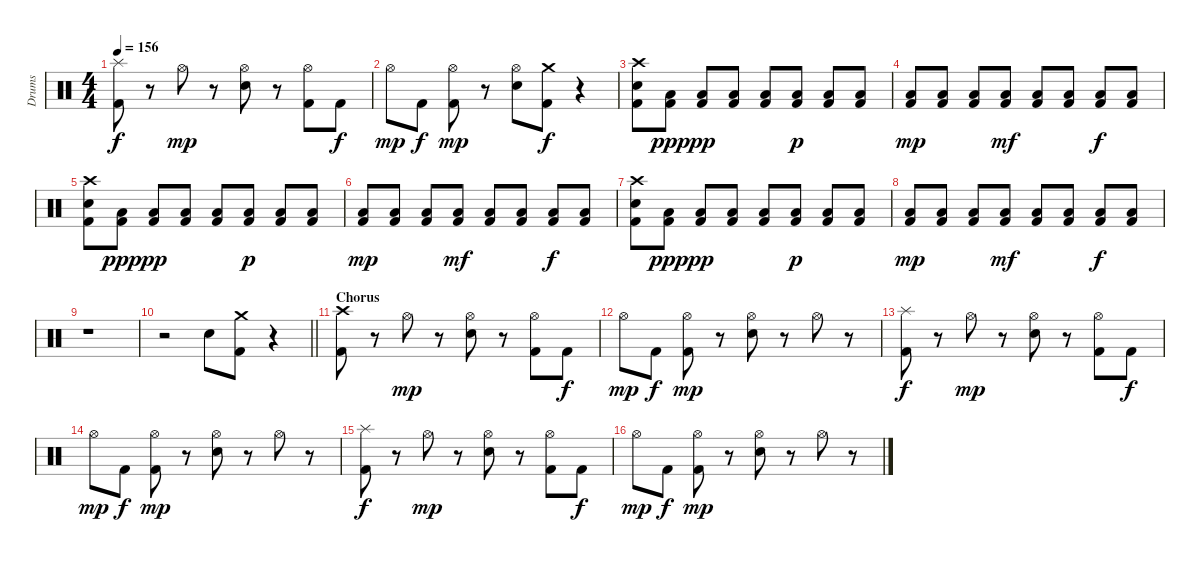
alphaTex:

\track ("Drums" "Drums") {instrument percussion}
\staff {score}
\articulation defaults
\ts (4 4)
\tempo 156
\clef neutral
\ks c
("Kick (hit) 2" "Splash (hit)").8{dy f} r.8 "Hi-Hat (open)".8{dy mp} r.8 ("Snare (hit) 2" "Hi-Hat (open)").8 r.8 ("Kick (hit) 2" "Hi-Hat (open)").8 "Kick (hit) 2".8{dy f} |
"Hi-Hat (open)".8{dy mp} "Kick (hit) 2".8{dy f} ("Kick (hit) 2" "Hi-Hat (open)").8{dy mp} r.8 ("Snare (hit) 2" "Hi-Hat (open)").8 ("Kick (hit) 2" "Crash medium (hit)").8{dy f} r.4 |
("Kick (hit) 2" "Snare (hit) 2" "Crash high (hit)").8 ("Kick (hit) 2" "Low Floor Tom (hit)").8{dy ppp} ("Kick (hit) 2" "Low Floor Tom (hit)").8{dy pp} ("Kick (hit) 2" "Low Floor Tom (hit)").8 ("Kick (hit) 2" "Low Floor Tom (hit)").8 ("Kick (hit) 2" "Low Floor Tom (hit)").8{dy p} ("Kick (hit) 2" "Low Floor Tom (hit)").8 ("Kick (hit) 2" "Low Floor Tom (hit)").8 |
("Kick (hit) 2" "Low Floor Tom (hit)").8{dy mp} ("Kick (hit) 2" "Low Floor Tom (hit)").8 ("Kick (hit) 2" "Low Floor Tom (hit)").8 ("Kick (hit) 2" "Low Floor Tom (hit)").8{dy mf} ("Kick (hit) 2" "Low Floor Tom (hit)").8 ("Kick (hit) 2" "Low Floor Tom (hit)").8 ("Kick (hit) 2" "Low Floor Tom (hit)").8{dy f} ("Kick (hit) 2" "Low Floor Tom (hit)").8 |
("Kick (hit) 2" "Snare (hit) 2" "Crash high (hit)").8 ("Kick (hit) 2" "Low Floor Tom (hit)").8{dy ppp} ("Kick (hit) 2" "Low Floor Tom (hit)").8{dy pp} ("Kick (hit) 2" "Low Floor Tom (hit)").8 ("Kick (hit) 2" "Low Floor Tom (hit)").8 ("Kick (hit) 2" "Low Floor Tom (hit)").8{dy p} ("Kick (hit) 2" "Low Floor Tom (hit)").8 ("Kick (hit) 2" "Low Floor Tom (hit)").8 |
("Kick (hit) 2" "Low Floor Tom (hit)").8{dy mp} ("Kick (hit) 2" "Low Floor Tom (hit)").8 ("Kick (hit) 2" "Low Floor Tom (hit)").8 ("Kick (hit) 2" "Low Floor Tom (hit)").8{dy mf} ("Kick (hit) 2" "Low Floor Tom (hit)").8 ("Kick (hit) 2" "Low Floor Tom (hit)").8 ("Kick (hit) 2" "Low Floor Tom (hit)").8{dy f} ("Kick (hit) 2" "Low Floor Tom (hit)").8 |
("Kick (hit) 2" "Snare (hit) 2" "Crash high (hit)").8 ("Kick (hit) 2" "Low Floor Tom (hit)").8{dy ppp} ("Kick (hit) 2" "Low Floor Tom (hit)").8{dy pp} ("Kick (hit) 2" "Low Floor Tom (hit)").8 ("Kick (hit) 2" "Low Floor Tom (hit)").8 ("Kick (hit) 2" "Low Floor Tom (hit)").8{dy p} ("Kick (hit) 2" "Low Floor Tom (hit)").8 ("Kick (hit) 2" "Low Floor Tom (hit)").8 |
("Kick (hit) 2" "Low Floor Tom (hit)").8{dy mp} ("Kick (hit) 2" "Low Floor Tom (hit)").8 ("Kick (hit) 2" "Low Floor Tom (hit)").8 ("Kick (hit) 2" "Low Floor Tom (hit)").8{dy mf} ("Kick (hit) 2" "Low Floor Tom (hit)").8 ("Kick (hit) 2" "Low Floor Tom (hit)").8 ("Kick (hit) 2" "Low Floor Tom (hit)").8{dy f} ("Kick (hit) 2" "Low Floor Tom (hit)").8 |
r.1 |
\barLineRight lightlight
r.2 "Snare (hit) 2".8 ("Kick (hit) 2" "Crash medium (hit)").8 r.4 |
\section ("" "Chorus")
("Kick (hit) 2" "Crash high (hit)").8 r.8 "Hi-Hat (open)".8{dy mp} r.8 ("Snare (hit) 2" "Hi-Hat (open)").8 r.8 ("Kick (hit) 2" "Hi-Hat (open)").8 "Kick (hit) 2".8{dy f} |
"Hi-Hat (open)".8{dy mp} "Kick (hit) 2".8{dy f} ("Kick (hit) 2" "Hi-Hat (open)").8{dy mp} r.8 ("Snare (hit) 2" "Hi-Hat (open)").8 r.8 "Hi-Hat (open)".8 r.8 |
("Kick (hit) 2" "Splash (hit)").8{dy f} r.8 "Hi-Hat (open)".8{dy mp} r.8 ("Snare (hit) 2" "Hi-Hat (open)").8 r.8 ("Kick (hit) 2" "Hi-Hat (open)").8 "Kick (hit) 2".8{dy f} |
"Hi-Hat (open)".8{dy mp} "Kick (hit) 2".8{dy f} ("Kick (hit) 2" "Hi-Hat (open)").8{dy mp} r.8 ("Snare (hit) 2" "Hi-Hat (open)").8 r.8 "Hi-Hat (open)".8 r.8 |
("Kick (hit) 2" "Splash (hit)").8{dy f} r.8 "Hi-Hat (open)".8{dy mp} r.8 ("Snare (hit) 2" "Hi-Hat (open)").8 r.8 ("Kick (hit) 2" "Hi-Hat (open)").8 "Kick (hit) 2".8{dy f} |
"Hi-Hat (open)".8{dy mp} "Kick (hit) 2".8{dy f} ("Kick (hit) 2" "Hi-Hat (open)").8{dy mp} r.8 ("Snare (hit) 2" "Hi-Hat (open)").8 r.8 "Hi-Hat (open)".8 r.8
